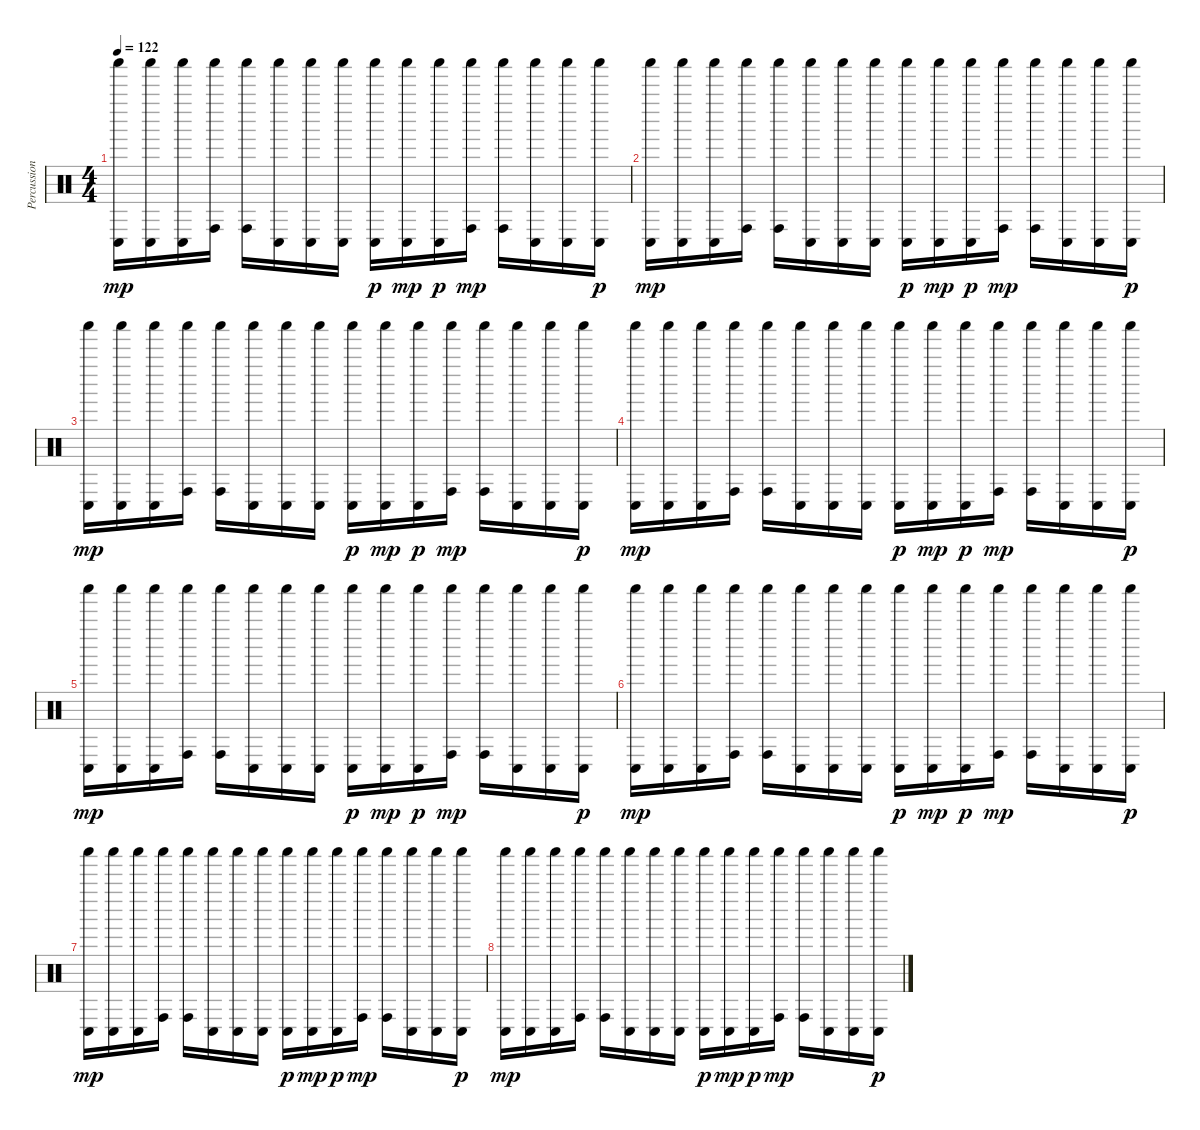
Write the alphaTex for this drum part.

\track ("Percussion" "Percussion") {instrument percussion}
\staff {score}
\articulation defaults
\ts (4 4)
\tempo 122
\clef neutral
\ks c
("Shaker (hit)" "Conga low (hit)").16{dy mp} ("Shaker (hit)" "Conga low (hit)").16 ("Shaker (hit)" "Conga low (hit)").16 ("Shaker (hit)" "Conga high (hit)").16 ("Shaker (hit)" "Conga high (hit)").16 ("Shaker (hit)" "Conga low (hit)").16 ("Shaker (hit)" "Conga low (hit)").16 ("Shaker (hit)" "Conga low (hit)").16 ("Shaker (hit)" "Conga low (hit)").16{dy p} ("Shaker (hit)" "Conga low (hit)").16{dy mp} ("Shaker (hit)" "Conga low (hit)").16{dy p} ("Shaker (hit)" "Conga high (hit)").16{dy mp} ("Shaker (hit)" "Conga high (hit)").16 ("Shaker (hit)" "Conga low (hit)").16 ("Shaker (hit)" "Conga low (hit)").16 ("Shaker (hit)" "Conga low (hit)").16{dy p} |
("Shaker (hit)" "Conga low (hit)").16{dy mp} ("Shaker (hit)" "Conga low (hit)").16 ("Shaker (hit)" "Conga low (hit)").16 ("Shaker (hit)" "Conga high (hit)").16 ("Shaker (hit)" "Conga high (hit)").16 ("Shaker (hit)" "Conga low (hit)").16 ("Shaker (hit)" "Conga low (hit)").16 ("Shaker (hit)" "Conga low (hit)").16 ("Shaker (hit)" "Conga low (hit)").16{dy p} ("Shaker (hit)" "Conga low (hit)").16{dy mp} ("Shaker (hit)" "Conga low (hit)").16{dy p} ("Shaker (hit)" "Conga high (hit)").16{dy mp} ("Shaker (hit)" "Conga high (hit)").16 ("Shaker (hit)" "Conga low (hit)").16 ("Shaker (hit)" "Conga low (hit)").16 ("Shaker (hit)" "Conga low (hit)").16{dy p} |
("Shaker (hit)" "Conga low (hit)").16{dy mp} ("Shaker (hit)" "Conga low (hit)").16 ("Shaker (hit)" "Conga low (hit)").16 ("Shaker (hit)" "Conga high (hit)").16 ("Shaker (hit)" "Conga high (hit)").16 ("Shaker (hit)" "Conga low (hit)").16 ("Shaker (hit)" "Conga low (hit)").16 ("Shaker (hit)" "Conga low (hit)").16 ("Shaker (hit)" "Conga low (hit)").16{dy p} ("Shaker (hit)" "Conga low (hit)").16{dy mp} ("Shaker (hit)" "Conga low (hit)").16{dy p} ("Shaker (hit)" "Conga high (hit)").16{dy mp} ("Shaker (hit)" "Conga high (hit)").16 ("Shaker (hit)" "Conga low (hit)").16 ("Shaker (hit)" "Conga low (hit)").16 ("Shaker (hit)" "Conga low (hit)").16{dy p} |
("Shaker (hit)" "Conga low (hit)").16{dy mp} ("Shaker (hit)" "Conga low (hit)").16 ("Shaker (hit)" "Conga low (hit)").16 ("Shaker (hit)" "Conga high (hit)").16 ("Shaker (hit)" "Conga high (hit)").16 ("Shaker (hit)" "Conga low (hit)").16 ("Shaker (hit)" "Conga low (hit)").16 ("Shaker (hit)" "Conga low (hit)").16 ("Shaker (hit)" "Conga low (hit)").16{dy p} ("Shaker (hit)" "Conga low (hit)").16{dy mp} ("Shaker (hit)" "Conga low (hit)").16{dy p} ("Shaker (hit)" "Conga high (hit)").16{dy mp} ("Shaker (hit)" "Conga high (hit)").16 ("Shaker (hit)" "Conga low (hit)").16 ("Shaker (hit)" "Conga low (hit)").16 ("Shaker (hit)" "Conga low (hit)").16{dy p} |
("Shaker (hit)" "Conga low (hit)").16{dy mp} ("Shaker (hit)" "Conga low (hit)").16 ("Shaker (hit)" "Conga low (hit)").16 ("Shaker (hit)" "Conga high (hit)").16 ("Shaker (hit)" "Conga high (hit)").16 ("Shaker (hit)" "Conga low (hit)").16 ("Shaker (hit)" "Conga low (hit)").16 ("Shaker (hit)" "Conga low (hit)").16 ("Shaker (hit)" "Conga low (hit)").16{dy p} ("Shaker (hit)" "Conga low (hit)").16{dy mp} ("Shaker (hit)" "Conga low (hit)").16{dy p} ("Shaker (hit)" "Conga high (hit)").16{dy mp} ("Shaker (hit)" "Conga high (hit)").16 ("Shaker (hit)" "Conga low (hit)").16 ("Shaker (hit)" "Conga low (hit)").16 ("Shaker (hit)" "Conga low (hit)").16{dy p} |
("Shaker (hit)" "Conga low (hit)").16{dy mp} ("Shaker (hit)" "Conga low (hit)").16 ("Shaker (hit)" "Conga low (hit)").16 ("Shaker (hit)" "Conga high (hit)").16 ("Shaker (hit)" "Conga high (hit)").16 ("Shaker (hit)" "Conga low (hit)").16 ("Shaker (hit)" "Conga low (hit)").16 ("Shaker (hit)" "Conga low (hit)").16 ("Shaker (hit)" "Conga low (hit)").16{dy p} ("Shaker (hit)" "Conga low (hit)").16{dy mp} ("Shaker (hit)" "Conga low (hit)").16{dy p} ("Shaker (hit)" "Conga high (hit)").16{dy mp} ("Shaker (hit)" "Conga high (hit)").16 ("Shaker (hit)" "Conga low (hit)").16 ("Shaker (hit)" "Conga low (hit)").16 ("Shaker (hit)" "Conga low (hit)").16{dy p} |
("Shaker (hit)" "Conga low (hit)").16{dy mp} ("Shaker (hit)" "Conga low (hit)").16 ("Shaker (hit)" "Conga low (hit)").16 ("Shaker (hit)" "Conga high (hit)").16 ("Shaker (hit)" "Conga high (hit)").16 ("Shaker (hit)" "Conga low (hit)").16 ("Shaker (hit)" "Conga low (hit)").16 ("Shaker (hit)" "Conga low (hit)").16 ("Shaker (hit)" "Conga low (hit)").16{dy p} ("Shaker (hit)" "Conga low (hit)").16{dy mp} ("Shaker (hit)" "Conga low (hit)").16{dy p} ("Shaker (hit)" "Conga high (hit)").16{dy mp} ("Shaker (hit)" "Conga high (hit)").16 ("Shaker (hit)" "Conga low (hit)").16 ("Shaker (hit)" "Conga low (hit)").16 ("Shaker (hit)" "Conga low (hit)").16{dy p} |
("Shaker (hit)" "Conga low (hit)").16{dy mp} ("Shaker (hit)" "Conga low (hit)").16 ("Shaker (hit)" "Conga low (hit)").16 ("Shaker (hit)" "Conga high (hit)").16 ("Shaker (hit)" "Conga high (hit)").16 ("Shaker (hit)" "Conga low (hit)").16 ("Shaker (hit)" "Conga low (hit)").16 ("Shaker (hit)" "Conga low (hit)").16 ("Shaker (hit)" "Conga low (hit)").16{dy p} ("Shaker (hit)" "Conga low (hit)").16{dy mp} ("Shaker (hit)" "Conga low (hit)").16{dy p} ("Shaker (hit)" "Conga high (hit)").16{dy mp} ("Shaker (hit)" "Conga high (hit)").16 ("Shaker (hit)" "Conga low (hit)").16 ("Shaker (hit)" "Conga low (hit)").16 ("Shaker (hit)" "Conga low (hit)").16{dy p}
